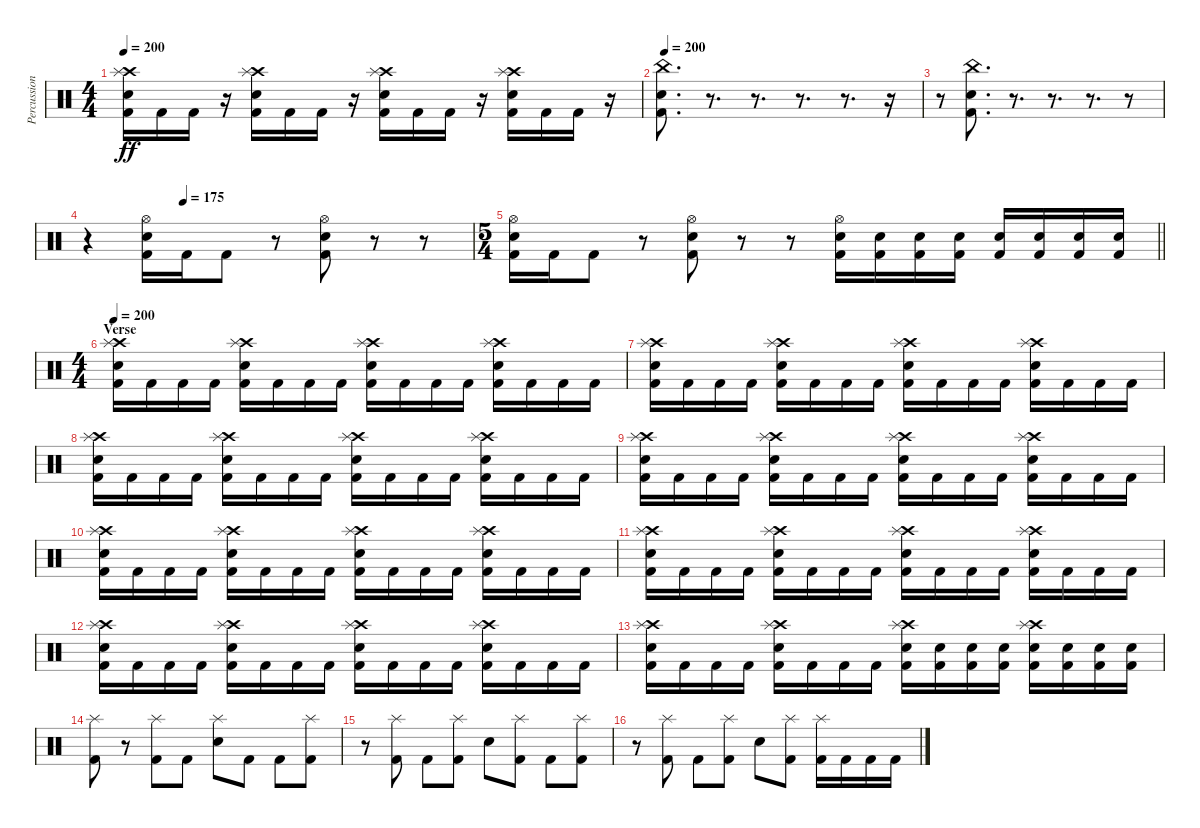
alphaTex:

\track ("Percussion" "Percussion") {instrument percussion}
\staff {score}
\articulation defaults
\ts (4 4)
\tempo 200
\clef neutral
\ks c
("Crash high (hit)" "Splash (hit)" "Electric Snare (hit)" "Kick (hit) 2").16{dy ff} "Kick (hit) 2".16 "Kick (hit) 2".16 r.16 ("Crash high (hit)" "Splash (hit)" "Electric Snare (hit)" "Kick (hit) 2").16 "Kick (hit) 2".16 "Kick (hit) 2".16 r.16 ("Crash high (hit)" "Splash (hit)" "Electric Snare (hit)" "Kick (hit) 2").16 "Kick (hit) 2".16 "Kick (hit) 2".16 r.16 ("Crash high (hit)" "Splash (hit)" "Electric Snare (hit)" "Kick (hit) 2").16 "Kick (hit) 2".16 "Kick (hit) 2".16 r.16 |
\tempo 200
("China (hit)" "Electric Snare (hit)" "Kick (hit) 2").8{d} r.8{d} r.8{d} r.8{d} r.8{d} r.16 |
r.8 ("China (hit)" "Electric Snare (hit)" "Kick (hit) 2").8{d} r.8{d} r.8{d} r.8{d} r.8 |
\tempo (175 0.25)
r.4 ("Hi-Hat (open)" "Electric Snare (hit)" "Kick (hit) 2").16 "Kick (hit) 2".16 "Kick (hit) 2".8 r.8 ("Hi-Hat (open)" "Electric Snare (hit)" "Kick (hit) 2").8 r.8 r.8 |
\ts (5 4)
\barLineRight lightlight
("Hi-Hat (open)" "Electric Snare (hit)" "Kick (hit) 2").16 "Kick (hit) 2".16 "Kick (hit) 2".8 r.8 ("Hi-Hat (open)" "Electric Snare (hit)" "Kick (hit) 2").8 r.8 r.8 ("Hi-Hat (open)" "Electric Snare (hit)" "Kick (hit) 2").16 ("Electric Snare (hit)" "Kick (hit) 2").16 ("Electric Snare (hit)" "Kick (hit) 2").16 ("Electric Snare (hit)" "Kick (hit) 2").16 ("Electric Snare (hit)" "Kick (hit) 2").16 ("Electric Snare (hit)" "Kick (hit) 2").16 ("Electric Snare (hit)" "Kick (hit) 2").16 ("Electric Snare (hit)" "Kick (hit) 2").16 |
\ts (4 4)
\section ("" "Verse")
\tempo 200
("Crash high (hit)" "Splash (hit)" "Electric Snare (hit)" "Kick (hit) 2").16 "Kick (hit) 2".16 "Kick (hit) 2".16 "Kick (hit) 2".16 ("Crash high (hit)" "Splash (hit)" "Electric Snare (hit)" "Kick (hit) 2").16 "Kick (hit) 2".16 "Kick (hit) 2".16 "Kick (hit) 2".16 ("Crash high (hit)" "Splash (hit)" "Electric Snare (hit)" "Kick (hit) 2").16 "Kick (hit) 2".16 "Kick (hit) 2".16 "Kick (hit) 2".16 ("Crash high (hit)" "Splash (hit)" "Electric Snare (hit)" "Kick (hit) 2").16 "Kick (hit) 2".16 "Kick (hit) 2".16 "Kick (hit) 2".16 |
("Crash high (hit)" "Splash (hit)" "Electric Snare (hit)" "Kick (hit) 2").16 "Kick (hit) 2".16 "Kick (hit) 2".16 "Kick (hit) 2".16 ("Crash high (hit)" "Splash (hit)" "Electric Snare (hit)" "Kick (hit) 2").16 "Kick (hit) 2".16 "Kick (hit) 2".16 "Kick (hit) 2".16 ("Crash high (hit)" "Splash (hit)" "Electric Snare (hit)" "Kick (hit) 2").16 "Kick (hit) 2".16 "Kick (hit) 2".16 "Kick (hit) 2".16 ("Crash high (hit)" "Splash (hit)" "Electric Snare (hit)" "Kick (hit) 2").16 "Kick (hit) 2".16 "Kick (hit) 2".16 "Kick (hit) 2".16 |
("Crash high (hit)" "Splash (hit)" "Electric Snare (hit)" "Kick (hit) 2").16 "Kick (hit) 2".16 "Kick (hit) 2".16 "Kick (hit) 2".16 ("Crash high (hit)" "Splash (hit)" "Electric Snare (hit)" "Kick (hit) 2").16 "Kick (hit) 2".16 "Kick (hit) 2".16 "Kick (hit) 2".16 ("Crash high (hit)" "Splash (hit)" "Electric Snare (hit)" "Kick (hit) 2").16 "Kick (hit) 2".16 "Kick (hit) 2".16 "Kick (hit) 2".16 ("Crash high (hit)" "Splash (hit)" "Electric Snare (hit)" "Kick (hit) 2").16 "Kick (hit) 2".16 "Kick (hit) 2".16 "Kick (hit) 2".16 |
("Crash high (hit)" "Splash (hit)" "Electric Snare (hit)" "Kick (hit) 2").16 "Kick (hit) 2".16 "Kick (hit) 2".16 "Kick (hit) 2".16 ("Crash high (hit)" "Splash (hit)" "Electric Snare (hit)" "Kick (hit) 2").16 "Kick (hit) 2".16 "Kick (hit) 2".16 "Kick (hit) 2".16 ("Crash high (hit)" "Splash (hit)" "Electric Snare (hit)" "Kick (hit) 2").16 "Kick (hit) 2".16 "Kick (hit) 2".16 "Kick (hit) 2".16 ("Crash high (hit)" "Splash (hit)" "Electric Snare (hit)" "Kick (hit) 2").16 "Kick (hit) 2".16 "Kick (hit) 2".16 "Kick (hit) 2".16 |
("Crash high (hit)" "Splash (hit)" "Electric Snare (hit)" "Kick (hit) 2").16 "Kick (hit) 2".16 "Kick (hit) 2".16 "Kick (hit) 2".16 ("Crash high (hit)" "Splash (hit)" "Electric Snare (hit)" "Kick (hit) 2").16 "Kick (hit) 2".16 "Kick (hit) 2".16 "Kick (hit) 2".16 ("Crash high (hit)" "Splash (hit)" "Electric Snare (hit)" "Kick (hit) 2").16 "Kick (hit) 2".16 "Kick (hit) 2".16 "Kick (hit) 2".16 ("Crash high (hit)" "Splash (hit)" "Electric Snare (hit)" "Kick (hit) 2").16 "Kick (hit) 2".16 "Kick (hit) 2".16 "Kick (hit) 2".16 |
("Crash high (hit)" "Splash (hit)" "Electric Snare (hit)" "Kick (hit) 2").16 "Kick (hit) 2".16 "Kick (hit) 2".16 "Kick (hit) 2".16 ("Crash high (hit)" "Splash (hit)" "Electric Snare (hit)" "Kick (hit) 2").16 "Kick (hit) 2".16 "Kick (hit) 2".16 "Kick (hit) 2".16 ("Crash high (hit)" "Splash (hit)" "Electric Snare (hit)" "Kick (hit) 2").16 "Kick (hit) 2".16 "Kick (hit) 2".16 "Kick (hit) 2".16 ("Crash high (hit)" "Splash (hit)" "Electric Snare (hit)" "Kick (hit) 2").16 "Kick (hit) 2".16 "Kick (hit) 2".16 "Kick (hit) 2".16 |
("Crash high (hit)" "Splash (hit)" "Electric Snare (hit)" "Kick (hit) 2").16 "Kick (hit) 2".16 "Kick (hit) 2".16 "Kick (hit) 2".16 ("Crash high (hit)" "Splash (hit)" "Electric Snare (hit)" "Kick (hit) 2").16 "Kick (hit) 2".16 "Kick (hit) 2".16 "Kick (hit) 2".16 ("Crash high (hit)" "Splash (hit)" "Electric Snare (hit)" "Kick (hit) 2").16 "Kick (hit) 2".16 "Kick (hit) 2".16 "Kick (hit) 2".16 ("Crash high (hit)" "Splash (hit)" "Electric Snare (hit)" "Kick (hit) 2").16 "Kick (hit) 2".16 "Kick (hit) 2".16 "Kick (hit) 2".16 |
("Crash high (hit)" "Splash (hit)" "Electric Snare (hit)" "Kick (hit) 2").16 "Kick (hit) 2".16 "Kick (hit) 2".16 "Kick (hit) 2".16 ("Crash high (hit)" "Splash (hit)" "Electric Snare (hit)" "Kick (hit) 2").16 "Kick (hit) 2".16 "Kick (hit) 2".16 "Kick (hit) 2".16 ("Crash high (hit)" "Splash (hit)" "Electric Snare (hit)" "Kick (hit) 2").16 ("Electric Snare (hit)" "Kick (hit) 2").16 ("Electric Snare (hit)" "Kick (hit) 2").16 ("Electric Snare (hit)" "Kick (hit) 2").16 ("Crash high (hit)" "Splash (hit)" "Electric Snare (hit)" "Kick (hit) 2").16 ("Electric Snare (hit)" "Kick (hit) 2").16 ("Electric Snare (hit)" "Kick (hit) 2").16 ("Electric Snare (hit)" "Kick (hit) 2").16 |
("Splash (hit)" "Kick (hit) 2").8 r.8 ("Splash (hit)" "Kick (hit) 2").8 "Kick (hit) 2".8 ("Splash (hit)" "Electric Snare (hit)").8 "Kick (hit) 2".8 "Kick (hit) 2".8 ("Splash (hit)" "Kick (hit) 2").8 |
r.8 ("Splash (hit)" "Kick (hit) 2").8 "Kick (hit) 2".8 ("Splash (hit)" "Kick (hit) 2").8 "Electric Snare (hit)".8 ("Splash (hit)" "Kick (hit) 2").8 "Kick (hit) 2".8 ("Splash (hit)" "Kick (hit) 2").8 |
r.8 ("Splash (hit)" "Kick (hit) 2").8 "Kick (hit) 2".8 ("Splash (hit)" "Kick (hit) 2").8 "Electric Snare (hit)".8 ("Splash (hit)" "Kick (hit) 2").8 ("Splash (hit)" "Kick (hit) 2").16 "Kick (hit) 2".16 "Kick (hit) 2".16 "Kick (hit) 2".16
